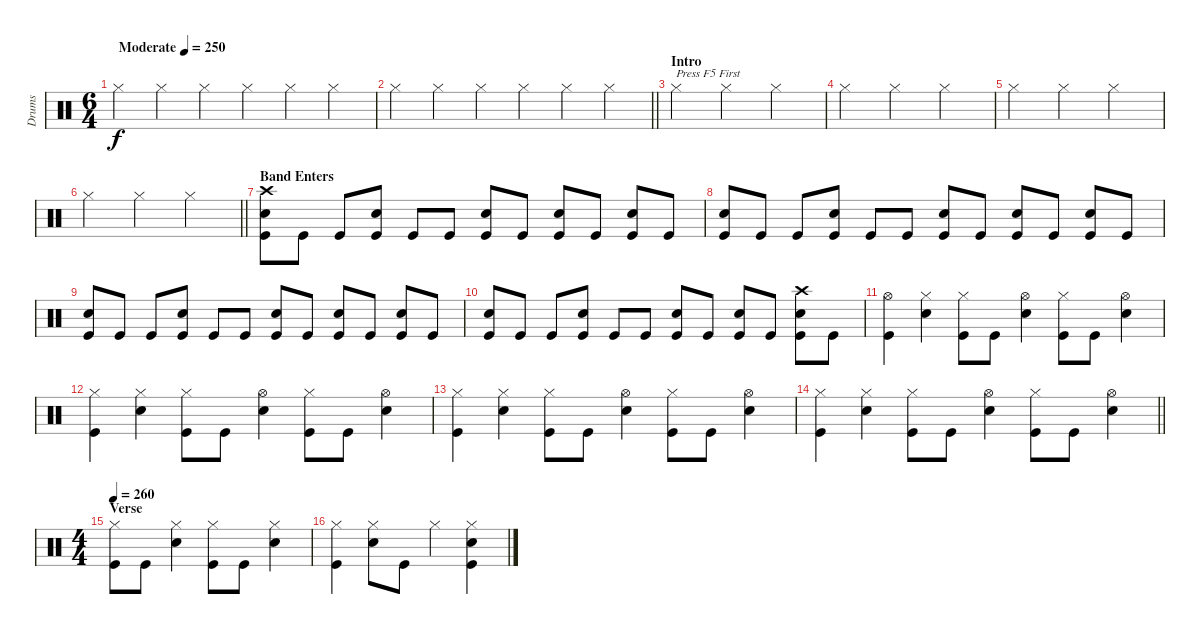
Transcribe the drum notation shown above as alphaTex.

\track ("Drums" "Drums") {instrument percussion}
\staff {score}
\articulation defaults
\ts (6 4)
\tempo (250 "Moderate")
\clef neutral
\ks c "Hi-Hat (closed)".4{dy f} "Hi-Hat (closed)".4 "Hi-Hat (closed)".4 "Hi-Hat (closed)".4 "Hi-Hat (closed)".4 "Hi-Hat (closed)".4
|
\barLineRight lightlight "Hi-Hat (closed)".4 "Hi-Hat (closed)".4 "Hi-Hat (closed)".4 "Hi-Hat (closed)".4 "Hi-Hat (closed)".4 "Hi-Hat (closed)".4
|
\section ("" "Intro")
"Hi-Hat (closed)".2{txt "Press F5 First" volume 7} "Hi-Hat (closed)".2 "Hi-Hat (closed)".2 |
"Hi-Hat (closed)".2 "Hi-Hat (closed)".2 "Hi-Hat (closed)".2 |
"Hi-Hat (closed)".2 "Hi-Hat (closed)".2 "Hi-Hat (closed)".2 |
\barLineRight lightlight "Hi-Hat (closed)".2 "Hi-Hat (closed)".2 "Hi-Hat (closed)".2
|
\section ("" "Band Enters")
("Crash high (hit)" "Snare (hit) 2" "Kick (hit)").8{volume 13} "Kick (hit)".8 "Kick (hit)".8 ("Snare (hit) 2" "Kick (hit)").8 "Kick (hit)".8 "Kick (hit)".8 ("Snare (hit) 2" "Kick (hit)").8 "Kick (hit)".8 ("Snare (hit) 2" "Kick (hit)").8 "Kick (hit)".8 ("Snare (hit) 2" "Kick (hit)").8 "Kick (hit)".8 |
("Snare (hit) 2" "Kick (hit)").8 "Kick (hit)".8 "Kick (hit)".8 ("Snare (hit) 2" "Kick (hit)").8 "Kick (hit)".8 "Kick (hit)".8 ("Snare (hit) 2" "Kick (hit)").8 "Kick (hit)".8 ("Snare (hit) 2" "Kick (hit)").8 "Kick (hit)".8 ("Snare (hit) 2" "Kick (hit)").8 "Kick (hit)".8 |
("Snare (hit) 2" "Kick (hit)").8 "Kick (hit)".8 "Kick (hit)".8 ("Snare (hit) 2" "Kick (hit)").8 "Kick (hit)".8 "Kick (hit)".8 ("Snare (hit) 2" "Kick (hit)").8 "Kick (hit)".8 ("Snare (hit) 2" "Kick (hit)").8 "Kick (hit)".8 ("Snare (hit) 2" "Kick (hit)").8 "Kick (hit)".8 |
("Snare (hit) 2" "Kick (hit)").8 "Kick (hit)".8 "Kick (hit)".8 ("Snare (hit) 2" "Kick (hit)").8 "Kick (hit)".8 "Kick (hit)".8 ("Snare (hit) 2" "Kick (hit)").8 "Kick (hit)".8 ("Snare (hit) 2" "Kick (hit)").8 "Kick (hit)".8 ("Crash high (hit)" "Snare (hit) 2" "Kick (hit)").8 "Kick (hit)".8 |
("Hi-Hat (open)" "Kick (hit)").4 ("Hi-Hat (closed)" "Snare (hit) 2").4 ("Hi-Hat (closed)" "Kick (hit)").8 "Kick (hit)".8 ("Hi-Hat (open)" "Snare (hit) 2").4 ("Hi-Hat (closed)" "Kick (hit)").8 "Kick (hit)".8 ("Hi-Hat (open)" "Snare (hit) 2").4 |
("Hi-Hat (closed)" "Kick (hit)").4 ("Hi-Hat (closed)" "Snare (hit) 2").4 ("Hi-Hat (closed)" "Kick (hit)").8 "Kick (hit)".8 ("Hi-Hat (open)" "Snare (hit) 2").4 ("Hi-Hat (closed)" "Kick (hit)").8 "Kick (hit)".8 ("Hi-Hat (open)" "Snare (hit) 2").4 |
("Hi-Hat (closed)" "Kick (hit)").4 ("Hi-Hat (closed)" "Snare (hit) 2").4 ("Hi-Hat (closed)" "Kick (hit)").8 "Kick (hit)".8 ("Hi-Hat (open)" "Snare (hit) 2").4 ("Hi-Hat (closed)" "Kick (hit)").8 "Kick (hit)".8 ("Hi-Hat (open)" "Snare (hit) 2").4 |
\barLineRight lightlight
("Hi-Hat (closed)" "Kick (hit)").4 ("Hi-Hat (closed)" "Snare (hit) 2").4 ("Hi-Hat (closed)" "Kick (hit)").8 "Kick (hit)".8 ("Hi-Hat (open)" "Snare (hit) 2").4 ("Hi-Hat (closed)" "Kick (hit)").8 "Kick (hit)".8 ("Hi-Hat (open)" "Snare (hit) 2").4 |
\ts (4 4)
\section ("" "Verse")
\tempo 260
("Hi-Hat (closed)" "Kick (hit)").8 "Kick (hit)".8 ("Hi-Hat (closed)" "Snare (hit) 2").4 ("Hi-Hat (closed)" "Kick (hit)").8 "Kick (hit)".8 ("Hi-Hat (closed)" "Snare (hit) 2").4 |
("Hi-Hat (closed)" "Kick (hit)").4 ("Hi-Hat (closed)" "Snare (hit) 2").8 "Kick (hit)".8 "Hi-Hat (closed)".4 ("Hi-Hat (closed)" "Snare (hit) 2" "Kick (hit)").4
